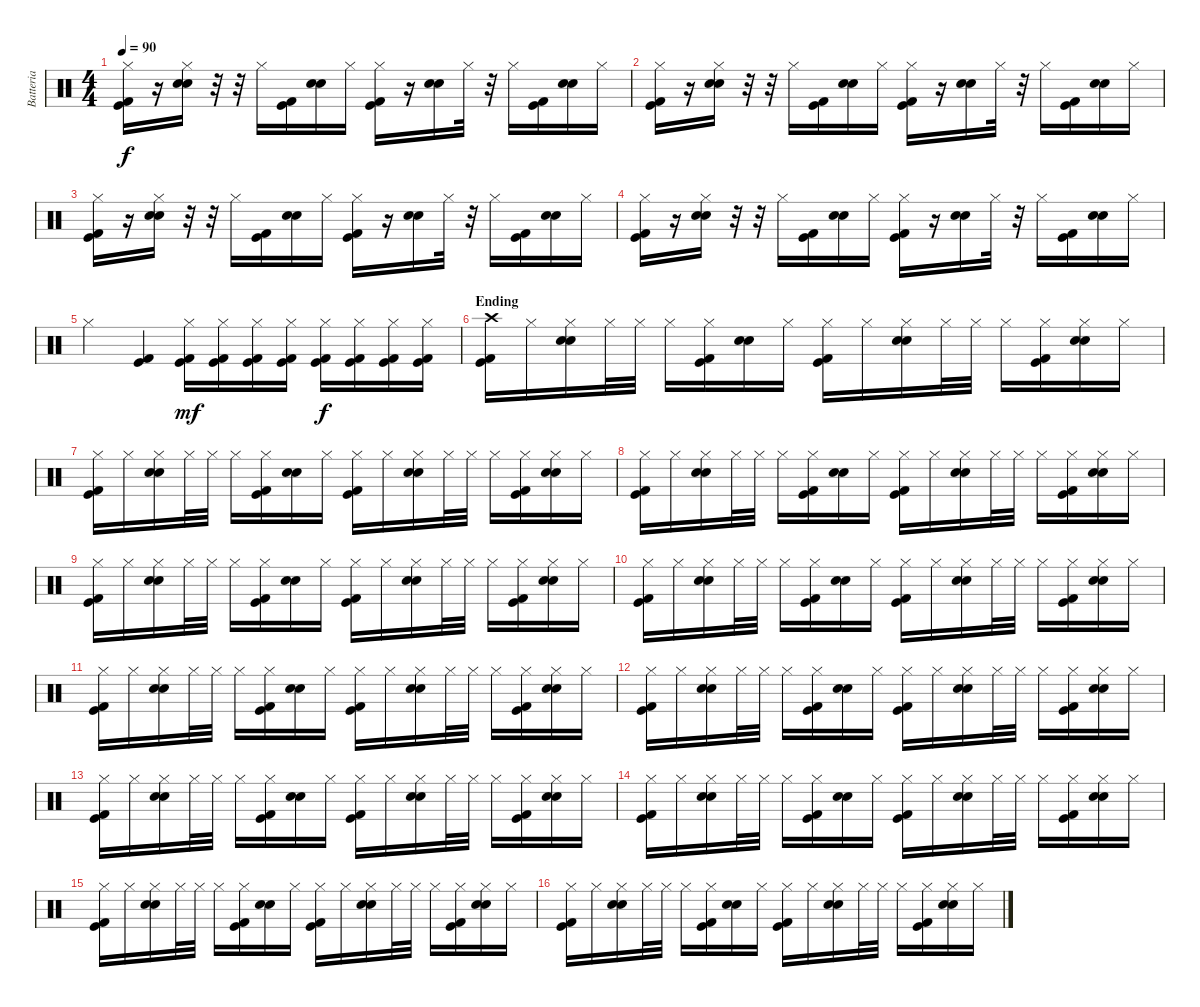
\track ("Batteria" "Batteria") {instrument percussion}
\staff {score}
\articulation defaults
\ts (4 4)
\tempo 90
\clef neutral
\ks c
("Hi-Hat (closed)" "Kick (hit)" "Kick (hit) 2").16{dy f} r.16 ("Hi-Hat (closed)" "Snare (hit) 2" "Electric Snare (hit)").16 r.32 r.32 "Hi-Hat (closed)".16 ("Kick (hit) 2" "Kick (hit)").16 ("Snare (hit) 2" "Electric Snare (hit)").16 "Hi-Hat (closed)".16 ("Hi-Hat (closed)" "Kick (hit) 2" "Kick (hit)").16 r.16 ("Snare (hit) 2" "Electric Snare (hit)").16 "Hi-Hat (closed)".32 r.32 "Hi-Hat (closed)".16 ("Kick (hit) 2" "Kick (hit)").16 ("Snare (hit) 2" "Electric Snare (hit)").16 "Hi-Hat (closed)".16 |
("Hi-Hat (closed)" "Kick (hit)" "Kick (hit) 2").16 r.16 ("Hi-Hat (closed)" "Snare (hit) 2" "Electric Snare (hit)").16 r.32 r.32 "Hi-Hat (closed)".16 ("Kick (hit) 2" "Kick (hit)").16 ("Snare (hit) 2" "Electric Snare (hit)").16 "Hi-Hat (closed)".16 ("Hi-Hat (closed)" "Kick (hit) 2" "Kick (hit)").16 r.16 ("Snare (hit) 2" "Electric Snare (hit)").16 "Hi-Hat (closed)".32 r.32 "Hi-Hat (closed)".16 ("Kick (hit) 2" "Kick (hit)").16 ("Snare (hit) 2" "Electric Snare (hit)").16 "Hi-Hat (closed)".16 |
("Hi-Hat (closed)" "Kick (hit)" "Kick (hit) 2").16 r.16 ("Hi-Hat (closed)" "Snare (hit) 2" "Electric Snare (hit)").16 r.32 r.32 "Hi-Hat (closed)".16 ("Kick (hit) 2" "Kick (hit)").16 ("Snare (hit) 2" "Electric Snare (hit)").16 "Hi-Hat (closed)".16 ("Hi-Hat (closed)" "Kick (hit) 2" "Kick (hit)").16 r.16 ("Snare (hit) 2" "Electric Snare (hit)").16 "Hi-Hat (closed)".32 r.32 "Hi-Hat (closed)".16 ("Kick (hit) 2" "Kick (hit)").16 ("Snare (hit) 2" "Electric Snare (hit)").16 "Hi-Hat (closed)".16 |
("Hi-Hat (closed)" "Kick (hit)" "Kick (hit) 2").16 r.16 ("Hi-Hat (closed)" "Snare (hit) 2" "Electric Snare (hit)").16 r.32 r.32 "Hi-Hat (closed)".16 ("Kick (hit) 2" "Kick (hit)").16 ("Snare (hit) 2" "Electric Snare (hit)").16 "Hi-Hat (closed)".16 ("Hi-Hat (closed)" "Kick (hit) 2" "Kick (hit)").16 r.16 ("Snare (hit) 2" "Electric Snare (hit)").16 "Hi-Hat (closed)".32 r.32 "Hi-Hat (closed)".16 ("Kick (hit) 2" "Kick (hit)").16 ("Snare (hit) 2" "Electric Snare (hit)").16 "Hi-Hat (closed)".16 |
"Hi-Hat (closed)".4 ("Kick (hit)" "Kick (hit) 2").4 ("Hi-Hat (closed)" "Kick (hit)" "Kick (hit) 2").16{dy mf} ("Hi-Hat (closed)" "Kick (hit)" "Kick (hit) 2").16 ("Hi-Hat (closed)" "Kick (hit)" "Kick (hit) 2").16 ("Hi-Hat (closed)" "Kick (hit)" "Kick (hit) 2").16 ("Hi-Hat (closed)" "Kick (hit)" "Kick (hit) 2").16{dy f} ("Hi-Hat (closed)" "Kick (hit)" "Kick (hit) 2").16 ("Hi-Hat (closed)" "Kick (hit)" "Kick (hit) 2").16 ("Hi-Hat (closed)" "Kick (hit)" "Kick (hit) 2").16 |
\section ("" "Ending")
("Crash high (hit)" "Kick (hit)" "Kick (hit) 2").16 "Hi-Hat (closed)".16 ("Hi-Hat (closed)" "Snare (hit) 2" "Electric Snare (hit)").16 "Hi-Hat (closed)".32 "Hi-Hat (closed)".32 "Hi-Hat (closed)".16 ("Hi-Hat (closed)" "Kick (hit) 2" "Kick (hit)").16 ("Snare (hit) 2" "Electric Snare (hit)").16 "Hi-Hat (closed)".16 ("Hi-Hat (closed)" "Kick (hit) 2" "Kick (hit)").16 "Hi-Hat (closed)".16 ("Hi-Hat (closed)" "Snare (hit) 2" "Electric Snare (hit)").16 "Hi-Hat (closed)".32 "Hi-Hat (closed)".32 "Hi-Hat (closed)".16 ("Hi-Hat (closed)" "Kick (hit) 2" "Kick (hit)").16 ("Hi-Hat (closed)" "Snare (hit) 2" "Electric Snare (hit)").16 "Hi-Hat (closed)".16 |
("Hi-Hat (closed)" "Kick (hit)" "Kick (hit) 2").16 "Hi-Hat (closed)".16 ("Hi-Hat (closed)" "Snare (hit) 2" "Electric Snare (hit)").16 "Hi-Hat (closed)".32 "Hi-Hat (closed)".32 "Hi-Hat (closed)".16 ("Hi-Hat (closed)" "Kick (hit) 2" "Kick (hit)").16 ("Snare (hit) 2" "Electric Snare (hit)").16 "Hi-Hat (closed)".16 ("Hi-Hat (closed)" "Kick (hit) 2" "Kick (hit)").16 "Hi-Hat (closed)".16 ("Hi-Hat (closed)" "Snare (hit) 2" "Electric Snare (hit)").16 "Hi-Hat (closed)".32 "Hi-Hat (closed)".32 "Hi-Hat (closed)".16 ("Hi-Hat (closed)" "Kick (hit) 2" "Kick (hit)").16 ("Hi-Hat (closed)" "Snare (hit) 2" "Electric Snare (hit)").16 "Hi-Hat (closed)".16 |
("Hi-Hat (closed)" "Kick (hit)" "Kick (hit) 2").16 "Hi-Hat (closed)".16 ("Hi-Hat (closed)" "Snare (hit) 2" "Electric Snare (hit)").16 "Hi-Hat (closed)".32 "Hi-Hat (closed)".32 "Hi-Hat (closed)".16 ("Hi-Hat (closed)" "Kick (hit) 2" "Kick (hit)").16 ("Snare (hit) 2" "Electric Snare (hit)").16 "Hi-Hat (closed)".16 ("Hi-Hat (closed)" "Kick (hit) 2" "Kick (hit)").16 "Hi-Hat (closed)".16 ("Hi-Hat (closed)" "Snare (hit) 2" "Electric Snare (hit)").16 "Hi-Hat (closed)".32 "Hi-Hat (closed)".32 "Hi-Hat (closed)".16 ("Hi-Hat (closed)" "Kick (hit) 2" "Kick (hit)").16 ("Hi-Hat (closed)" "Snare (hit) 2" "Electric Snare (hit)").16 "Hi-Hat (closed)".16 |
("Hi-Hat (closed)" "Kick (hit)" "Kick (hit) 2").16 "Hi-Hat (closed)".16 ("Hi-Hat (closed)" "Snare (hit) 2" "Electric Snare (hit)").16 "Hi-Hat (closed)".32 "Hi-Hat (closed)".32 "Hi-Hat (closed)".16 ("Hi-Hat (closed)" "Kick (hit) 2" "Kick (hit)").16 ("Snare (hit) 2" "Electric Snare (hit)").16 "Hi-Hat (closed)".16 ("Hi-Hat (closed)" "Kick (hit) 2" "Kick (hit)").16 "Hi-Hat (closed)".16 ("Hi-Hat (closed)" "Snare (hit) 2" "Electric Snare (hit)").16 "Hi-Hat (closed)".32 "Hi-Hat (closed)".32 "Hi-Hat (closed)".16 ("Hi-Hat (closed)" "Kick (hit) 2" "Kick (hit)").16 ("Hi-Hat (closed)" "Snare (hit) 2" "Electric Snare (hit)").16 "Hi-Hat (closed)".16 |
("Hi-Hat (closed)" "Kick (hit)" "Kick (hit) 2").16 "Hi-Hat (closed)".16 ("Hi-Hat (closed)" "Snare (hit) 2" "Electric Snare (hit)").16 "Hi-Hat (closed)".32 "Hi-Hat (closed)".32 "Hi-Hat (closed)".16 ("Hi-Hat (closed)" "Kick (hit) 2" "Kick (hit)").16 ("Snare (hit) 2" "Electric Snare (hit)").16 "Hi-Hat (closed)".16 ("Hi-Hat (closed)" "Kick (hit) 2" "Kick (hit)").16 "Hi-Hat (closed)".16 ("Hi-Hat (closed)" "Snare (hit) 2" "Electric Snare (hit)").16 "Hi-Hat (closed)".32 "Hi-Hat (closed)".32 "Hi-Hat (closed)".16 ("Hi-Hat (closed)" "Kick (hit) 2" "Kick (hit)").16 ("Hi-Hat (closed)" "Snare (hit) 2" "Electric Snare (hit)").16 "Hi-Hat (closed)".16 |
("Hi-Hat (closed)" "Kick (hit)" "Kick (hit) 2").16 "Hi-Hat (closed)".16 ("Hi-Hat (closed)" "Snare (hit) 2" "Electric Snare (hit)").16 "Hi-Hat (closed)".32 "Hi-Hat (closed)".32 "Hi-Hat (closed)".16 ("Hi-Hat (closed)" "Kick (hit) 2" "Kick (hit)").16 ("Snare (hit) 2" "Electric Snare (hit)").16 "Hi-Hat (closed)".16 ("Hi-Hat (closed)" "Kick (hit) 2" "Kick (hit)").16 "Hi-Hat (closed)".16 ("Hi-Hat (closed)" "Snare (hit) 2" "Electric Snare (hit)").16 "Hi-Hat (closed)".32 "Hi-Hat (closed)".32 "Hi-Hat (closed)".16 ("Hi-Hat (closed)" "Kick (hit) 2" "Kick (hit)").16 ("Hi-Hat (closed)" "Snare (hit) 2" "Electric Snare (hit)").16 "Hi-Hat (closed)".16 |
("Hi-Hat (closed)" "Kick (hit)" "Kick (hit) 2").16 "Hi-Hat (closed)".16 ("Hi-Hat (closed)" "Snare (hit) 2" "Electric Snare (hit)").16 "Hi-Hat (closed)".32 "Hi-Hat (closed)".32 "Hi-Hat (closed)".16 ("Hi-Hat (closed)" "Kick (hit) 2" "Kick (hit)").16 ("Snare (hit) 2" "Electric Snare (hit)").16 "Hi-Hat (closed)".16 ("Hi-Hat (closed)" "Kick (hit) 2" "Kick (hit)").16 "Hi-Hat (closed)".16 ("Hi-Hat (closed)" "Snare (hit) 2" "Electric Snare (hit)").16 "Hi-Hat (closed)".32 "Hi-Hat (closed)".32 "Hi-Hat (closed)".16 ("Hi-Hat (closed)" "Kick (hit) 2" "Kick (hit)").16 ("Hi-Hat (closed)" "Snare (hit) 2" "Electric Snare (hit)").16 "Hi-Hat (closed)".16 |
("Hi-Hat (closed)" "Kick (hit)" "Kick (hit) 2").16 "Hi-Hat (closed)".16 ("Hi-Hat (closed)" "Snare (hit) 2" "Electric Snare (hit)").16 "Hi-Hat (closed)".32 "Hi-Hat (closed)".32 "Hi-Hat (closed)".16 ("Hi-Hat (closed)" "Kick (hit) 2" "Kick (hit)").16 ("Snare (hit) 2" "Electric Snare (hit)").16 "Hi-Hat (closed)".16 ("Hi-Hat (closed)" "Kick (hit) 2" "Kick (hit)").16 "Hi-Hat (closed)".16 ("Hi-Hat (closed)" "Snare (hit) 2" "Electric Snare (hit)").16 "Hi-Hat (closed)".32 "Hi-Hat (closed)".32 "Hi-Hat (closed)".16 ("Hi-Hat (closed)" "Kick (hit) 2" "Kick (hit)").16 ("Hi-Hat (closed)" "Snare (hit) 2" "Electric Snare (hit)").16 "Hi-Hat (closed)".16 |
("Hi-Hat (closed)" "Kick (hit)" "Kick (hit) 2").16 "Hi-Hat (closed)".16 ("Hi-Hat (closed)" "Snare (hit) 2" "Electric Snare (hit)").16 "Hi-Hat (closed)".32 "Hi-Hat (closed)".32 "Hi-Hat (closed)".16 ("Hi-Hat (closed)" "Kick (hit) 2" "Kick (hit)").16 ("Snare (hit) 2" "Electric Snare (hit)").16 "Hi-Hat (closed)".16 ("Hi-Hat (closed)" "Kick (hit) 2" "Kick (hit)").16 "Hi-Hat (closed)".16 ("Hi-Hat (closed)" "Snare (hit) 2" "Electric Snare (hit)").16 "Hi-Hat (closed)".32 "Hi-Hat (closed)".32 "Hi-Hat (closed)".16 ("Hi-Hat (closed)" "Kick (hit) 2" "Kick (hit)").16 ("Hi-Hat (closed)" "Snare (hit) 2" "Electric Snare (hit)").16 "Hi-Hat (closed)".16 |
("Hi-Hat (closed)" "Kick (hit)" "Kick (hit) 2").16 "Hi-Hat (closed)".16 ("Hi-Hat (closed)" "Snare (hit) 2" "Electric Snare (hit)").16 "Hi-Hat (closed)".32 "Hi-Hat (closed)".32 "Hi-Hat (closed)".16 ("Hi-Hat (closed)" "Kick (hit) 2" "Kick (hit)").16 ("Snare (hit) 2" "Electric Snare (hit)").16 "Hi-Hat (closed)".16 ("Hi-Hat (closed)" "Kick (hit) 2" "Kick (hit)").16 "Hi-Hat (closed)".16 ("Hi-Hat (closed)" "Snare (hit) 2" "Electric Snare (hit)").16 "Hi-Hat (closed)".32 "Hi-Hat (closed)".32 "Hi-Hat (closed)".16 ("Hi-Hat (closed)" "Kick (hit) 2" "Kick (hit)").16 ("Hi-Hat (closed)" "Snare (hit) 2" "Electric Snare (hit)").16 "Hi-Hat (closed)".16 |
("Hi-Hat (closed)" "Kick (hit)" "Kick (hit) 2").16 "Hi-Hat (closed)".16 ("Hi-Hat (closed)" "Snare (hit) 2" "Electric Snare (hit)").16 "Hi-Hat (closed)".32 "Hi-Hat (closed)".32 "Hi-Hat (closed)".16 ("Hi-Hat (closed)" "Kick (hit) 2" "Kick (hit)").16 ("Snare (hit) 2" "Electric Snare (hit)").16 "Hi-Hat (closed)".16 ("Hi-Hat (closed)" "Kick (hit) 2" "Kick (hit)").16 "Hi-Hat (closed)".16 ("Hi-Hat (closed)" "Snare (hit) 2" "Electric Snare (hit)").16 "Hi-Hat (closed)".32 "Hi-Hat (closed)".32 "Hi-Hat (closed)".16 ("Hi-Hat (closed)" "Kick (hit) 2" "Kick (hit)").16 ("Hi-Hat (closed)" "Snare (hit) 2" "Electric Snare (hit)").16 "Hi-Hat (closed)".16
